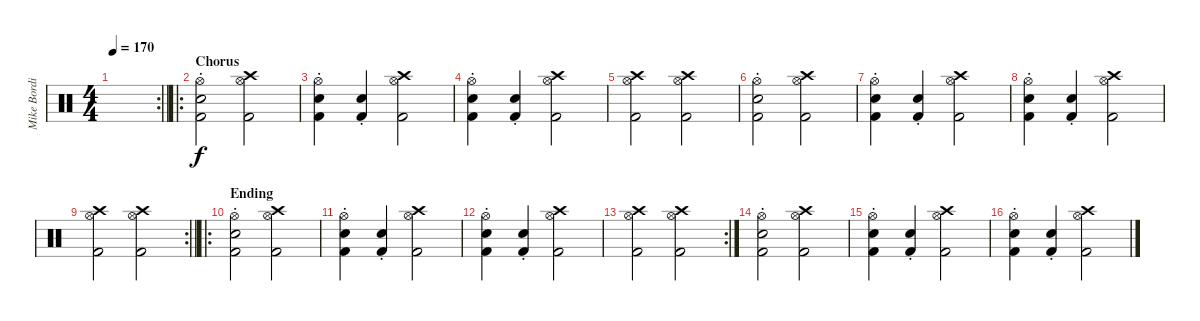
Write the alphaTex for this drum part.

\track ("Mike Bordin" "Mike Bordi") {instrument percussion}
\staff {score}
\articulation defaults
\rc 2
\ts (4 4)
\tempo 170
\clef neutral
\barLineRight lightlight
\ks c
|
\ro
\section ("" "Chorus")
("Hi-Hat (open)" "Snare (hit) 2" "Kick (hit) 2"{st}).2{dy f volume 16} ("Hi-Hat (open)" "Crash high (hit)" "Kick (hit) 2").2 |
("Hi-Hat (open)" "Snare (hit) 2" "Kick (hit) 2"{st}).4 ("Snare (hit) 2" "Kick (hit) 2"{st}).4 ("Hi-Hat (open)" "Crash high (hit)" "Kick (hit) 2").2 |
("Hi-Hat (open)" "Snare (hit) 2" "Kick (hit) 2"{st}).4 ("Snare (hit) 2" "Kick (hit) 2"{st}).4 ("Hi-Hat (open)" "Crash high (hit)" "Kick (hit) 2").2 |
("Hi-Hat (open)" "Crash high (hit)" "Kick (hit) 2").2 ("Hi-Hat (open)" "Crash high (hit)" "Kick (hit) 2").2 |
("Hi-Hat (open)" "Snare (hit) 2" "Kick (hit) 2"{st}).2 ("Hi-Hat (open)" "Crash high (hit)" "Kick (hit) 2").2 |
("Hi-Hat (open)" "Snare (hit) 2" "Kick (hit) 2"{st}).4 ("Snare (hit) 2" "Kick (hit) 2"{st}).4 ("Hi-Hat (open)" "Crash high (hit)" "Kick (hit) 2").2 |
("Hi-Hat (open)" "Snare (hit) 2" "Kick (hit) 2"{st}).4 ("Snare (hit) 2" "Kick (hit) 2"{st}).4 ("Hi-Hat (open)" "Crash high (hit)" "Kick (hit) 2").2 |
\rc 2
\barLineRight lightlight
("Hi-Hat (open)" "Crash high (hit)" "Kick (hit) 2").2 ("Hi-Hat (open)" "Crash high (hit)" "Kick (hit) 2").2 |
\ro
\section ("" "Ending")
("Hi-Hat (open)" "Snare (hit) 2" "Kick (hit) 2"{st}).2{volume 16} ("Hi-Hat (open)" "Crash high (hit)" "Kick (hit) 2").2 |
("Hi-Hat (open)" "Snare (hit) 2" "Kick (hit) 2"{st}).4 ("Snare (hit) 2" "Kick (hit) 2"{st}).4 ("Hi-Hat (open)" "Crash high (hit)" "Kick (hit) 2").2 |
("Hi-Hat (open)" "Snare (hit) 2" "Kick (hit) 2"{st}).4 ("Snare (hit) 2" "Kick (hit) 2"{st}).4 ("Hi-Hat (open)" "Crash high (hit)" "Kick (hit) 2").2 |
\rc 2
("Hi-Hat (open)" "Crash high (hit)" "Kick (hit) 2").2 ("Hi-Hat (open)" "Crash high (hit)" "Kick (hit) 2").2 |
("Hi-Hat (open)" "Snare (hit) 2" "Kick (hit) 2"{st}).2 ("Hi-Hat (open)" "Crash high (hit)" "Kick (hit) 2").2 |
("Hi-Hat (open)" "Snare (hit) 2" "Kick (hit) 2"{st}).4 ("Snare (hit) 2" "Kick (hit) 2"{st}).4 ("Hi-Hat (open)" "Crash high (hit)" "Kick (hit) 2").2 |
("Hi-Hat (open)" "Snare (hit) 2" "Kick (hit) 2"{st}).4 ("Snare (hit) 2" "Kick (hit) 2"{st}).4 ("Hi-Hat (open)" "Crash high (hit)" "Kick (hit) 2").2
